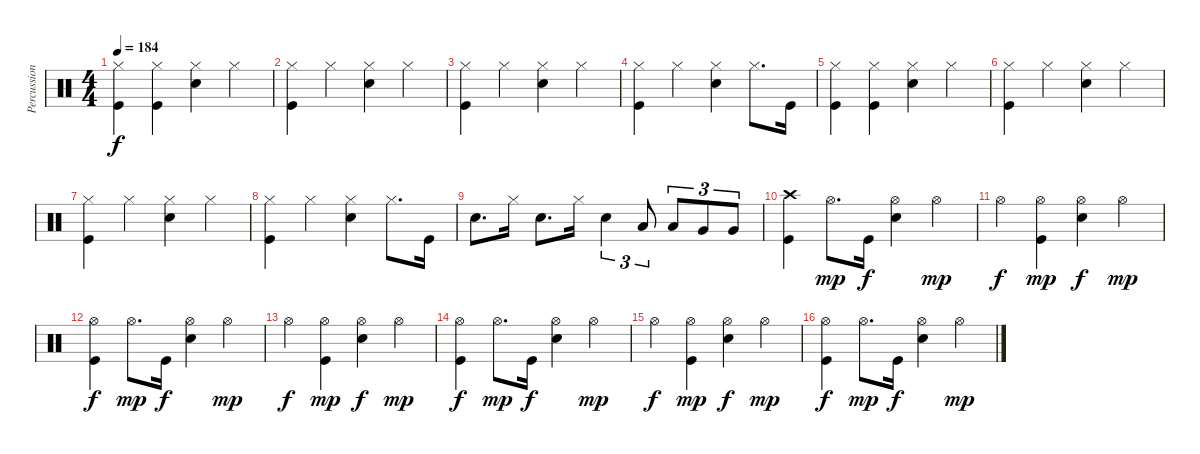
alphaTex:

\track ("Percussion" "Percussion") {instrument percussion}
\staff {score}
\articulation defaults
\ts (4 4)
\tempo 184
\clef neutral
\ks c
("Hi-Hat (closed)" "Kick (hit)").4{dy f} ("Hi-Hat (closed)" "Kick (hit)").4 ("Hi-Hat (closed)" "Electric Snare (hit)").4 "Hi-Hat (closed)".4 |
("Hi-Hat (closed)" "Kick (hit)").4 "Hi-Hat (closed)".4 ("Hi-Hat (closed)" "Electric Snare (hit)").4 "Hi-Hat (closed)".4 |
("Hi-Hat (closed)" "Kick (hit)").4 "Hi-Hat (closed)".4 ("Hi-Hat (closed)" "Electric Snare (hit)").4 "Hi-Hat (closed)".4 |
("Hi-Hat (closed)" "Kick (hit)").4 "Hi-Hat (closed)".4 ("Hi-Hat (closed)" "Electric Snare (hit)").4 "Hi-Hat (closed)".8{d} "Kick (hit)".16 |
("Hi-Hat (closed)" "Kick (hit)").4 ("Hi-Hat (closed)" "Kick (hit)").4 ("Hi-Hat (closed)" "Electric Snare (hit)").4 "Hi-Hat (closed)".4 |
("Hi-Hat (closed)" "Kick (hit)").4 "Hi-Hat (closed)".4 ("Hi-Hat (closed)" "Electric Snare (hit)").4 "Hi-Hat (closed)".4 |
("Hi-Hat (closed)" "Kick (hit)").4 "Hi-Hat (closed)".4 ("Hi-Hat (closed)" "Electric Snare (hit)").4 "Hi-Hat (closed)".4 |
("Hi-Hat (closed)" "Kick (hit)").4 "Hi-Hat (closed)".4 ("Hi-Hat (closed)" "Electric Snare (hit)").4 "Hi-Hat (closed)".8{d} "Kick (hit)".16 |
"Electric Snare (hit)".8{d} "Hi-Hat (closed)".16 "Electric Snare (hit)".8{d} "Hi-Hat (closed)".16 "Electric Snare (hit)".4{tu (3 2)} "Low Tom (hit)".8{tu (3 2)} "Low Tom (hit)".8{tu (3 2)} "Very Low Tom (hit)".8{tu (3 2)} "Very Low Tom (hit)".8{tu (3 2)} |
("Crash high (hit)" "Kick (hit)").4 "Hi-Hat (open)".8{d dy mp} "Kick (hit)".16{dy f} ("Hi-Hat (open)" "Electric Snare (hit)").4 "Hi-Hat (open)".4{dy mp} |
"Hi-Hat (open)".4{dy f} ("Hi-Hat (open)" "Kick (hit)").4{dy mp} ("Hi-Hat (open)" "Electric Snare (hit)").4{dy f} "Hi-Hat (open)".4{dy mp} |
("Hi-Hat (open)" "Kick (hit)").4{dy f} "Hi-Hat (open)".8{d dy mp} "Kick (hit)".16{dy f} ("Hi-Hat (open)" "Electric Snare (hit)").4 "Hi-Hat (open)".4{dy mp} |
"Hi-Hat (open)".4{dy f} ("Hi-Hat (open)" "Kick (hit)").4{dy mp} ("Hi-Hat (open)" "Electric Snare (hit)").4{dy f} "Hi-Hat (open)".4{dy mp} |
("Hi-Hat (open)" "Kick (hit)").4{dy f} "Hi-Hat (open)".8{d dy mp} "Kick (hit)".16{dy f} ("Hi-Hat (open)" "Electric Snare (hit)").4 "Hi-Hat (open)".4{dy mp} |
"Hi-Hat (open)".4{dy f} ("Hi-Hat (open)" "Kick (hit)").4{dy mp} ("Hi-Hat (open)" "Electric Snare (hit)").4{dy f} "Hi-Hat (open)".4{dy mp} |
("Hi-Hat (open)" "Kick (hit)").4{dy f} "Hi-Hat (open)".8{d dy mp} "Kick (hit)".16{dy f} ("Hi-Hat (open)" "Electric Snare (hit)").4 "Hi-Hat (open)".4{dy mp}
